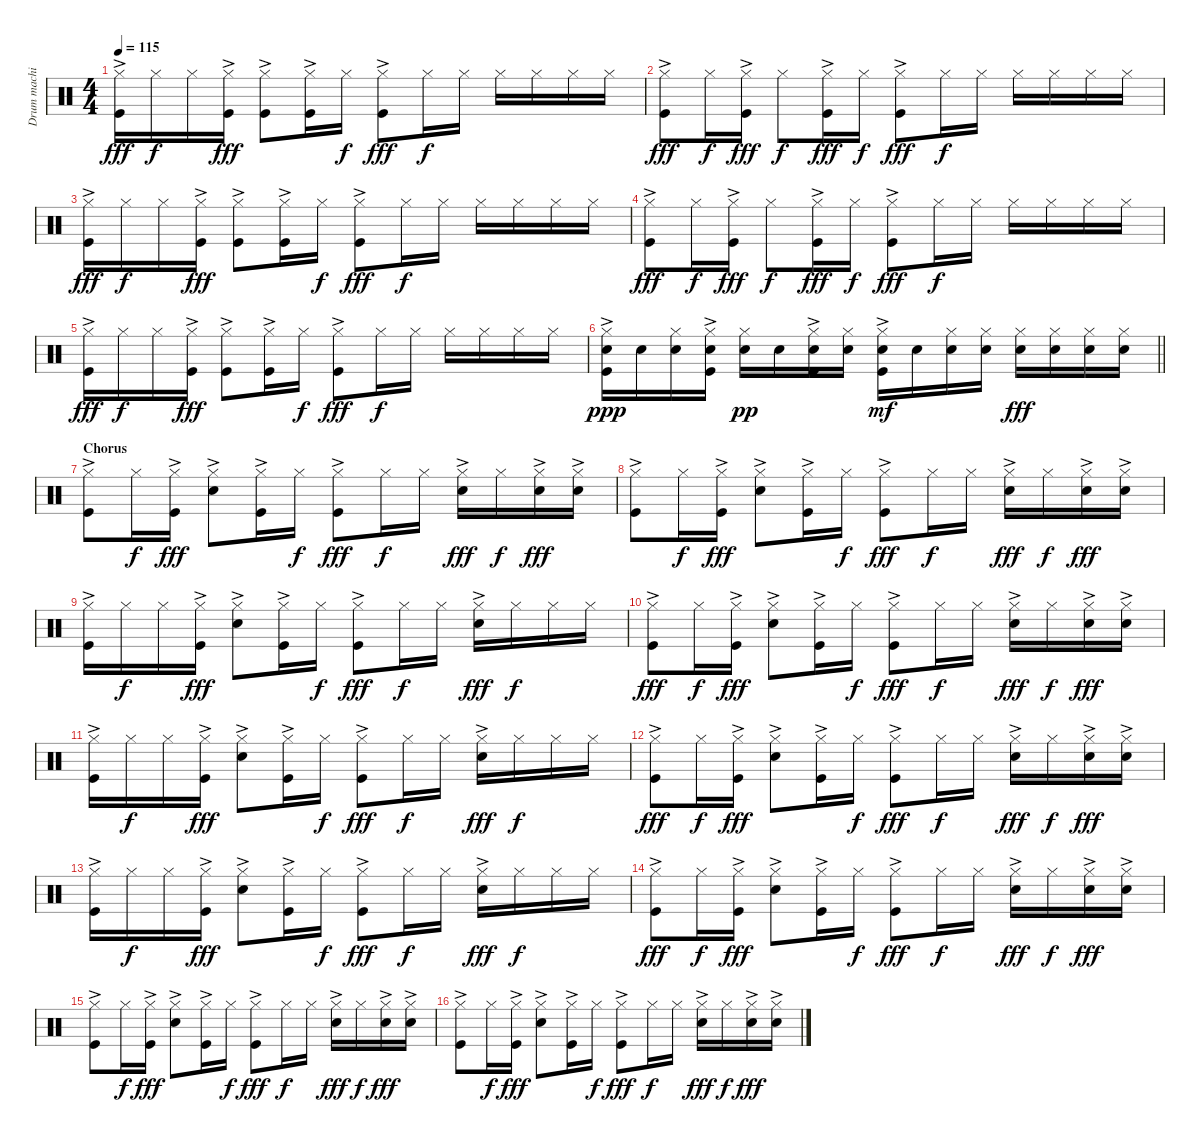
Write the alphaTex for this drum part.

\track ("Drum machine" "Drum machi") {instrument percussion}
\staff {score}
\articulation defaults
\ts (4 4)
\tempo 115
\clef neutral
\ks c
("Hi-Hat (closed)" "Kick (hit)"{ac}).16{dy fff} "Hi-Hat (closed)".16{dy f} "Hi-Hat (closed)".16 ("Hi-Hat (closed)" "Kick (hit)"{ac}).16{dy fff} ("Hi-Hat (closed)" "Kick (hit)"{ac}).8 ("Hi-Hat (closed)" "Kick (hit)"{ac}).16 "Hi-Hat (closed)".16{dy f} ("Hi-Hat (closed)" "Kick (hit)"{ac}).8{dy fff} "Hi-Hat (closed)".16{dy f} "Hi-Hat (closed)".16 "Hi-Hat (closed)".16 "Hi-Hat (closed)".16 "Hi-Hat (closed)".16 "Hi-Hat (closed)".16 |
("Hi-Hat (closed)" "Kick (hit)"{ac}).8{dy fff} "Hi-Hat (closed)".16{dy f} ("Hi-Hat (closed)" "Kick (hit)"{ac}).16{dy fff} "Hi-Hat (closed)".8{dy f} ("Hi-Hat (closed)" "Kick (hit)"{ac}).16{dy fff} "Hi-Hat (closed)".16{dy f} ("Hi-Hat (closed)" "Kick (hit)"{ac}).8{dy fff} "Hi-Hat (closed)".16{dy f} "Hi-Hat (closed)".16 "Hi-Hat (closed)".16 "Hi-Hat (closed)".16 "Hi-Hat (closed)".16 "Hi-Hat (closed)".16 |
("Hi-Hat (closed)" "Kick (hit)"{ac}).16{dy fff} "Hi-Hat (closed)".16{dy f} "Hi-Hat (closed)".16 ("Hi-Hat (closed)" "Kick (hit)"{ac}).16{dy fff} ("Hi-Hat (closed)" "Kick (hit)"{ac}).8 ("Hi-Hat (closed)" "Kick (hit)"{ac}).16 "Hi-Hat (closed)".16{dy f} ("Hi-Hat (closed)" "Kick (hit)"{ac}).8{dy fff} "Hi-Hat (closed)".16{dy f} "Hi-Hat (closed)".16 "Hi-Hat (closed)".16 "Hi-Hat (closed)".16 "Hi-Hat (closed)".16 "Hi-Hat (closed)".16 |
("Hi-Hat (closed)" "Kick (hit)"{ac}).8{dy fff} "Hi-Hat (closed)".16{dy f} ("Hi-Hat (closed)" "Kick (hit)"{ac}).16{dy fff} "Hi-Hat (closed)".8{dy f} ("Hi-Hat (closed)" "Kick (hit)"{ac}).16{dy fff} "Hi-Hat (closed)".16{dy f} ("Hi-Hat (closed)" "Kick (hit)"{ac}).8{dy fff} "Hi-Hat (closed)".16{dy f} "Hi-Hat (closed)".16 "Hi-Hat (closed)".16 "Hi-Hat (closed)".16 "Hi-Hat (closed)".16 "Hi-Hat (closed)".16 |
("Hi-Hat (closed)" "Kick (hit)"{ac}).16{dy fff} "Hi-Hat (closed)".16{dy f} "Hi-Hat (closed)".16 ("Hi-Hat (closed)" "Kick (hit)"{ac}).16{dy fff} ("Hi-Hat (closed)" "Kick (hit)"{ac}).8 ("Hi-Hat (closed)" "Kick (hit)"{ac}).16 "Hi-Hat (closed)".16{dy f} ("Hi-Hat (closed)" "Kick (hit)"{ac}).8{dy fff} "Hi-Hat (closed)".16{dy f} "Hi-Hat (closed)".16 "Hi-Hat (closed)".16 "Hi-Hat (closed)".16 "Hi-Hat (closed)".16 "Hi-Hat (closed)".16 |
\barLineRight lightlight
("Hi-Hat (closed)" "Snare (hit) 2" "Kick (hit)"{ac}).16{dy ppp} "Snare (hit) 2".16 ("Hi-Hat (closed)" "Snare (hit) 2").16 ("Hi-Hat (closed)" "Snare (hit) 2" "Kick (hit)"{ac}).16 ("Hi-Hat (closed)" "Snare (hit) 2").16{dy pp} "Snare (hit) 2".16 ("Hi-Hat (closed)" "Snare (hit) 2" "Kick (hit)"{ac}).16 ("Hi-Hat (closed)" "Snare (hit) 2").16 ("Hi-Hat (closed)" "Snare (hit) 2" "Kick (hit)"{ac}).16{dy mf} "Snare (hit) 2".16 ("Hi-Hat (closed)" "Snare (hit) 2").16 ("Hi-Hat (closed)" "Snare (hit) 2").16 ("Hi-Hat (closed)" "Snare (hit) 2").16{dy fff} ("Hi-Hat (closed)" "Snare (hit) 2").16 ("Hi-Hat (closed)" "Snare (hit) 2").16 ("Hi-Hat (closed)" "Snare (hit) 2").16 |
\section ("" "Chorus")
("Hi-Hat (closed)" "Kick (hit)"{ac}).8 "Hi-Hat (closed)".16{dy f} ("Hi-Hat (closed)" "Kick (hit)"{ac}).16{dy fff} ("Hi-Hat (closed)" "Snare (hit) 2"{ac}).8 ("Hi-Hat (closed)" "Kick (hit)"{ac}).16 "Hi-Hat (closed)".16{dy f} ("Hi-Hat (closed)" "Kick (hit)"{ac}).8{dy fff} "Hi-Hat (closed)".16{dy f} "Hi-Hat (closed)".16 ("Hi-Hat (closed)" "Snare (hit) 2"{ac}).16{dy fff} "Hi-Hat (closed)".16{dy f} ("Hi-Hat (closed)" "Snare (hit) 2"{ac}).16{dy fff} ("Hi-Hat (closed)" "Snare (hit) 2"{ac}).16 |
("Hi-Hat (closed)" "Kick (hit)"{ac}).8 "Hi-Hat (closed)".16{dy f} ("Hi-Hat (closed)" "Kick (hit)"{ac}).16{dy fff} ("Hi-Hat (closed)" "Snare (hit) 2"{ac}).8 ("Hi-Hat (closed)" "Kick (hit)"{ac}).16 "Hi-Hat (closed)".16{dy f} ("Hi-Hat (closed)" "Kick (hit)"{ac}).8{dy fff} "Hi-Hat (closed)".16{dy f} "Hi-Hat (closed)".16 ("Hi-Hat (closed)" "Snare (hit) 2"{ac}).16{dy fff} "Hi-Hat (closed)".16{dy f} ("Hi-Hat (closed)" "Snare (hit) 2"{ac}).16{dy fff} ("Hi-Hat (closed)" "Snare (hit) 2"{ac}).16 |
("Hi-Hat (closed)" "Kick (hit)"{ac}).16 "Hi-Hat (closed)".16{dy f} "Hi-Hat (closed)".16 ("Hi-Hat (closed)" "Kick (hit)"{ac}).16{dy fff} ("Hi-Hat (closed)" "Snare (hit) 2"{ac}).8 ("Hi-Hat (closed)" "Kick (hit)"{ac}).16 "Hi-Hat (closed)".16{dy f} ("Hi-Hat (closed)" "Kick (hit)"{ac}).8{dy fff} "Hi-Hat (closed)".16{dy f} "Hi-Hat (closed)".16 ("Hi-Hat (closed)" "Snare (hit) 2"{ac}).16{dy fff} "Hi-Hat (closed)".16{dy f} "Hi-Hat (closed)".16 "Hi-Hat (closed)".16 |
("Hi-Hat (closed)" "Kick (hit)"{ac}).8{dy fff} "Hi-Hat (closed)".16{dy f} ("Hi-Hat (closed)" "Kick (hit)"{ac}).16{dy fff} ("Hi-Hat (closed)" "Snare (hit) 2"{ac}).8 ("Hi-Hat (closed)" "Kick (hit)"{ac}).16 "Hi-Hat (closed)".16{dy f} ("Hi-Hat (closed)" "Kick (hit)"{ac}).8{dy fff} "Hi-Hat (closed)".16{dy f} "Hi-Hat (closed)".16 ("Hi-Hat (closed)" "Snare (hit) 2"{ac}).16{dy fff} "Hi-Hat (closed)".16{dy f} ("Hi-Hat (closed)" "Snare (hit) 2"{ac}).16{dy fff} ("Hi-Hat (closed)" "Snare (hit) 2"{ac}).16 |
("Hi-Hat (closed)" "Kick (hit)"{ac}).16 "Hi-Hat (closed)".16{dy f} "Hi-Hat (closed)".16 ("Hi-Hat (closed)" "Kick (hit)"{ac}).16{dy fff} ("Hi-Hat (closed)" "Snare (hit) 2"{ac}).8 ("Hi-Hat (closed)" "Kick (hit)"{ac}).16 "Hi-Hat (closed)".16{dy f} ("Hi-Hat (closed)" "Kick (hit)"{ac}).8{dy fff} "Hi-Hat (closed)".16{dy f} "Hi-Hat (closed)".16 ("Hi-Hat (closed)" "Snare (hit) 2"{ac}).16{dy fff} "Hi-Hat (closed)".16{dy f} "Hi-Hat (closed)".16 "Hi-Hat (closed)".16 |
("Hi-Hat (closed)" "Kick (hit)"{ac}).8{dy fff} "Hi-Hat (closed)".16{dy f} ("Hi-Hat (closed)" "Kick (hit)"{ac}).16{dy fff} ("Hi-Hat (closed)" "Snare (hit) 2"{ac}).8 ("Hi-Hat (closed)" "Kick (hit)"{ac}).16 "Hi-Hat (closed)".16{dy f} ("Hi-Hat (closed)" "Kick (hit)"{ac}).8{dy fff} "Hi-Hat (closed)".16{dy f} "Hi-Hat (closed)".16 ("Hi-Hat (closed)" "Snare (hit) 2"{ac}).16{dy fff} "Hi-Hat (closed)".16{dy f} ("Hi-Hat (closed)" "Snare (hit) 2"{ac}).16{dy fff} ("Hi-Hat (closed)" "Snare (hit) 2"{ac}).16 |
("Hi-Hat (closed)" "Kick (hit)"{ac}).16 "Hi-Hat (closed)".16{dy f} "Hi-Hat (closed)".16 ("Hi-Hat (closed)" "Kick (hit)"{ac}).16{dy fff} ("Hi-Hat (closed)" "Snare (hit) 2"{ac}).8 ("Hi-Hat (closed)" "Kick (hit)"{ac}).16 "Hi-Hat (closed)".16{dy f} ("Hi-Hat (closed)" "Kick (hit)"{ac}).8{dy fff} "Hi-Hat (closed)".16{dy f} "Hi-Hat (closed)".16 ("Hi-Hat (closed)" "Snare (hit) 2"{ac}).16{dy fff} "Hi-Hat (closed)".16{dy f} "Hi-Hat (closed)".16 "Hi-Hat (closed)".16 |
("Hi-Hat (closed)" "Kick (hit)"{ac}).8{dy fff} "Hi-Hat (closed)".16{dy f} ("Hi-Hat (closed)" "Kick (hit)"{ac}).16{dy fff} ("Hi-Hat (closed)" "Snare (hit) 2"{ac}).8 ("Hi-Hat (closed)" "Kick (hit)"{ac}).16 "Hi-Hat (closed)".16{dy f} ("Hi-Hat (closed)" "Kick (hit)"{ac}).8{dy fff} "Hi-Hat (closed)".16{dy f} "Hi-Hat (closed)".16 ("Hi-Hat (closed)" "Snare (hit) 2"{ac}).16{dy fff} "Hi-Hat (closed)".16{dy f} ("Hi-Hat (closed)" "Snare (hit) 2"{ac}).16{dy fff} ("Hi-Hat (closed)" "Snare (hit) 2"{ac}).16 |
("Hi-Hat (closed)" "Kick (hit)"{ac}).8 "Hi-Hat (closed)".16{dy f} ("Hi-Hat (closed)" "Kick (hit)"{ac}).16{dy fff} ("Hi-Hat (closed)" "Snare (hit) 2"{ac}).8 ("Hi-Hat (closed)" "Kick (hit)"{ac}).16 "Hi-Hat (closed)".16{dy f} ("Hi-Hat (closed)" "Kick (hit)"{ac}).8{dy fff} "Hi-Hat (closed)".16{dy f} "Hi-Hat (closed)".16 ("Hi-Hat (closed)" "Snare (hit) 2"{ac}).16{dy fff} "Hi-Hat (closed)".16{dy f} ("Hi-Hat (closed)" "Snare (hit) 2"{ac}).16{dy fff} ("Hi-Hat (closed)" "Snare (hit) 2"{ac}).16 |
("Hi-Hat (closed)" "Kick (hit)"{ac}).8 "Hi-Hat (closed)".16{dy f} ("Hi-Hat (closed)" "Kick (hit)"{ac}).16{dy fff} ("Hi-Hat (closed)" "Snare (hit) 2"{ac}).8 ("Hi-Hat (closed)" "Kick (hit)"{ac}).16 "Hi-Hat (closed)".16{dy f} ("Hi-Hat (closed)" "Kick (hit)"{ac}).8{dy fff} "Hi-Hat (closed)".16{dy f} "Hi-Hat (closed)".16 ("Hi-Hat (closed)" "Snare (hit) 2"{ac}).16{dy fff} "Hi-Hat (closed)".16{dy f} ("Hi-Hat (closed)" "Snare (hit) 2"{ac}).16{dy fff} ("Hi-Hat (closed)" "Snare (hit) 2"{ac}).16
